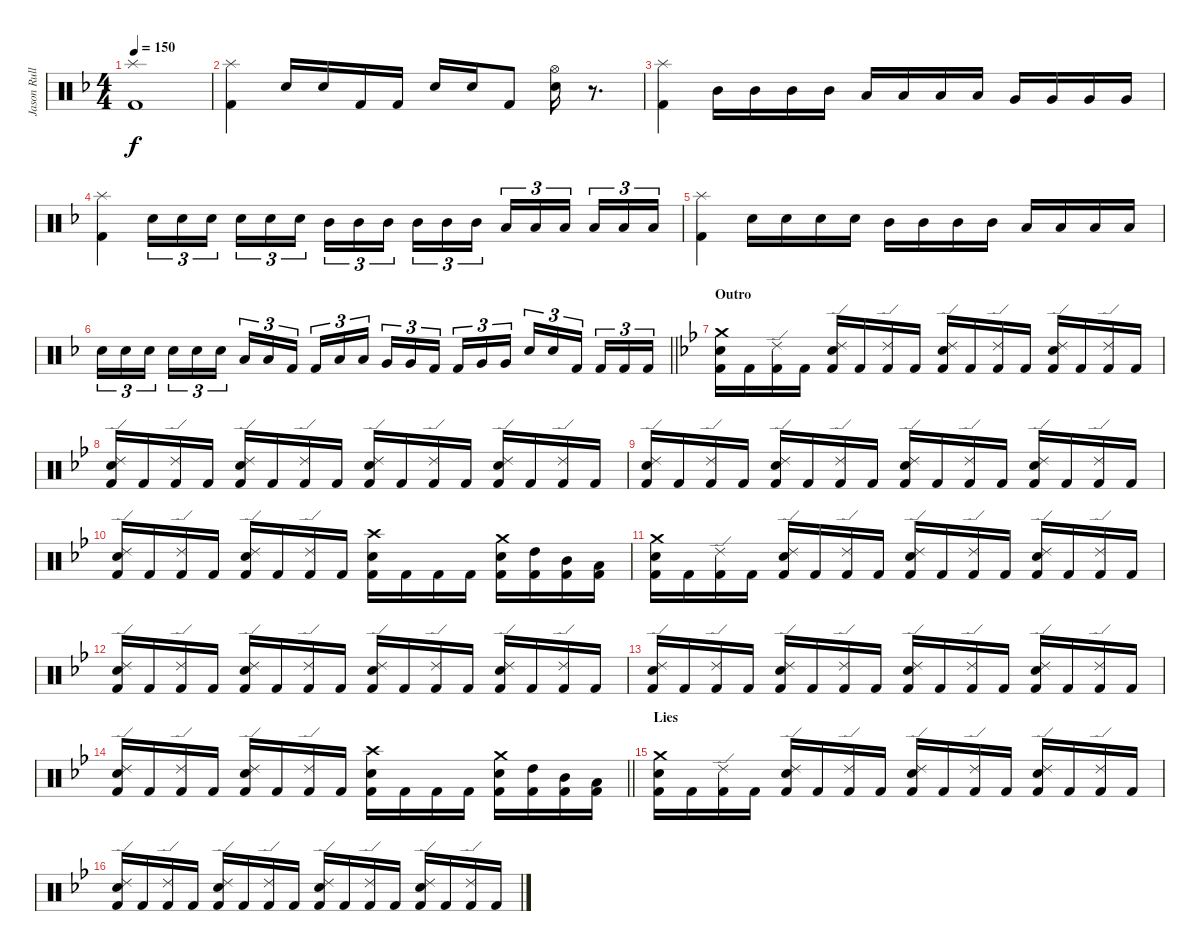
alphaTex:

\track ("Jason Rullo" "Jason Rull") {instrument percussion}
\staff {score}
\articulation defaults
\ts (4 4)
\tempo 150
\clef neutral
\ks dminor
("Splash (hit)" "Kick (hit) 2").1{dy f} |
("Splash (hit)" "Kick (hit) 2").4 "Electric Snare (hit)".16 "Electric Snare (hit)".16 "Kick (hit) 2".16 "Kick (hit) 2".16 "Electric Snare (hit)".16 "Electric Snare (hit)".16 "Kick (hit) 2".8 ("Hi-Hat (open)" "Electric Snare (hit)").16 r.8{d} |
("Splash (hit)" "Kick (hit) 2").4 "Mid Tom (hit)".16 "Mid Tom (hit)".16 "Mid Tom (hit)".16 "Mid Tom (hit)".16 "Low Tom (hit)".16 "Low Tom (hit)".16 "Low Tom (hit)".16 "Low Tom (hit)".16 "Very Low Tom (hit)".16 "Very Low Tom (hit)".16 "Very Low Tom (hit)".16 "Very Low Tom (hit)".16 |
("Splash (hit)" "Kick (hit) 2").4 "Electric Snare (hit)".16{tu (3 2)} "Electric Snare (hit)".16{tu (3 2)} "Electric Snare (hit)".16{tu (3 2) beam splitsecondary} "Electric Snare (hit)".16{tu (3 2)} "Electric Snare (hit)".16{tu (3 2)} "Electric Snare (hit)".16{tu (3 2)} "Mid Tom (hit)".16{tu (3 2)} "Mid Tom (hit)".16{tu (3 2)} "Mid Tom (hit)".16{tu (3 2) beam splitsecondary} "Mid Tom (hit)".16{tu (3 2)} "Mid Tom (hit)".16{tu (3 2)} "Mid Tom (hit)".16{tu (3 2)} "Low Tom (hit)".16{tu (3 2)} "Low Tom (hit)".16{tu (3 2)} "Low Tom (hit)".16{tu (3 2) beam splitsecondary} "Low Tom (hit)".16{tu (3 2)} "Low Tom (hit)".16{tu (3 2)} "Low Tom (hit)".16{tu (3 2)} |
("Splash (hit)" "Kick (hit) 2").4 "Electric Snare (hit)".16 "Electric Snare (hit)".16 "Electric Snare (hit)".16 "Electric Snare (hit)".16 "Mid Tom (hit)".16 "Mid Tom (hit)".16 "Mid Tom (hit)".16 "Mid Tom (hit)".16 "Low Tom (hit)".16 "Low Tom (hit)".16 "Low Tom (hit)".16 "Low Tom (hit)".16 |
\barLineRight lightlight "Electric Snare (hit)".16{tu (3 2)} "Electric Snare (hit)".16{tu (3 2)} "Electric Snare (hit)".16{tu (3 2) beam splitsecondary} "Electric Snare (hit)".16{tu (3 2)} "Electric Snare (hit)".16{tu (3 2)} "Electric Snare (hit)".16{tu (3 2)} "Low Tom (hit)".16{tu (3 2)} "Low Tom (hit)".16{tu (3 2)} "Kick (hit) 2".16{tu (3 2) beam splitsecondary} "Kick (hit) 2".16{tu (3 2)} "Low Tom (hit)".16{tu (3 2)} "Low Tom (hit)".16{tu (3 2)} "Very Low Tom (hit)".16{tu (3 2)} "Very Low Tom (hit)".16{tu (3 2)} "Kick (hit) 2".16{tu (3 2) beam splitsecondary} "Kick (hit) 2".16{tu (3 2)} "Very Low Tom (hit)".16{tu (3 2)} "Very Low Tom (hit)".16{tu (3 2)} "Electric Snare (hit)".16{tu (3 2)} "Electric Snare (hit)".16{tu (3 2)} "Kick (hit) 2".16{tu (3 2) beam splitsecondary} "Kick (hit) 2".16{tu (3 2)} "Kick (hit) 2".16{tu (3 2)} "Kick (hit) 2".16{tu (3 2)}
|
\section ("" "Outro")
\ks gminor
("Crash medium (hit)" "Electric Snare (hit)" "Kick (hit) 2").16 "Kick (hit) 2".16 ("Ride (edge) 2" "Kick (hit) 2").16 "Kick (hit) 2".16 ("Ride (edge) 2" "Electric Snare (hit)" "Kick (hit) 2").16 "Kick (hit) 2".16 ("Ride (edge) 2" "Kick (hit) 2").16 "Kick (hit) 2".16 ("Ride (edge) 2" "Electric Snare (hit)" "Kick (hit) 2").16 "Kick (hit) 2".16 ("Ride (edge) 2" "Kick (hit) 2").16 "Kick (hit) 2".16 ("Ride (edge) 2" "Electric Snare (hit)" "Kick (hit) 2").16 "Kick (hit) 2".16 ("Ride (edge) 2" "Kick (hit) 2").16 "Kick (hit) 2".16 |
("Ride (edge) 2" "Electric Snare (hit)" "Kick (hit) 2").16 "Kick (hit) 2".16 ("Ride (edge) 2" "Kick (hit) 2").16 "Kick (hit) 2".16 ("Ride (edge) 2" "Electric Snare (hit)" "Kick (hit) 2").16 "Kick (hit) 2".16 ("Ride (edge) 2" "Kick (hit) 2").16 "Kick (hit) 2".16 ("Ride (edge) 2" "Electric Snare (hit)" "Kick (hit) 2").16 "Kick (hit) 2".16 ("Ride (edge) 2" "Kick (hit) 2").16 "Kick (hit) 2".16 ("Ride (edge) 2" "Electric Snare (hit)" "Kick (hit) 2").16 "Kick (hit) 2".16 ("Ride (edge) 2" "Kick (hit) 2").16 "Kick (hit) 2".16 |
("Ride (edge) 2" "Electric Snare (hit)" "Kick (hit) 2").16 "Kick (hit) 2".16 ("Ride (edge) 2" "Kick (hit) 2").16 "Kick (hit) 2".16 ("Ride (edge) 2" "Electric Snare (hit)" "Kick (hit) 2").16 "Kick (hit) 2".16 ("Ride (edge) 2" "Kick (hit) 2").16 "Kick (hit) 2".16 ("Ride (edge) 2" "Electric Snare (hit)" "Kick (hit) 2").16 "Kick (hit) 2".16 ("Ride (edge) 2" "Kick (hit) 2").16 "Kick (hit) 2".16 ("Ride (edge) 2" "Electric Snare (hit)" "Kick (hit) 2").16 "Kick (hit) 2".16 ("Ride (edge) 2" "Kick (hit) 2").16 "Kick (hit) 2".16 |
("Ride (edge) 2" "Electric Snare (hit)" "Kick (hit) 2").16 "Kick (hit) 2".16 ("Ride (edge) 2" "Kick (hit) 2").16 "Kick (hit) 2".16 ("Ride (edge) 2" "Electric Snare (hit)" "Kick (hit) 2").16 "Kick (hit) 2".16 ("Ride (edge) 2" "Kick (hit) 2").16 "Kick (hit) 2".16 ("Crash high (hit)" "Electric Snare (hit)" "Kick (hit) 2").16 "Kick (hit) 2".16 "Kick (hit) 2".16 "Kick (hit) 2".16 ("Crash medium (hit)" "Electric Snare (hit)" "Kick (hit) 2").16 ("High Tom (hit)" "Kick (hit) 2").16 ("Mid Tom (hit)" "Kick (hit) 2").16 ("Low Tom (hit)" "Kick (hit) 2").16 |
("Crash medium (hit)" "Electric Snare (hit)" "Kick (hit) 2").16 "Kick (hit) 2".16 ("Ride (edge) 2" "Kick (hit) 2").16 "Kick (hit) 2".16 ("Ride (edge) 2" "Electric Snare (hit)" "Kick (hit) 2").16 "Kick (hit) 2".16 ("Ride (edge) 2" "Kick (hit) 2").16 "Kick (hit) 2".16 ("Ride (edge) 2" "Electric Snare (hit)" "Kick (hit) 2").16 "Kick (hit) 2".16 ("Ride (edge) 2" "Kick (hit) 2").16 "Kick (hit) 2".16 ("Ride (edge) 2" "Electric Snare (hit)" "Kick (hit) 2").16 "Kick (hit) 2".16 ("Ride (edge) 2" "Kick (hit) 2").16 "Kick (hit) 2".16 |
("Ride (edge) 2" "Electric Snare (hit)" "Kick (hit) 2").16 "Kick (hit) 2".16 ("Ride (edge) 2" "Kick (hit) 2").16 "Kick (hit) 2".16 ("Ride (edge) 2" "Electric Snare (hit)" "Kick (hit) 2").16 "Kick (hit) 2".16 ("Ride (edge) 2" "Kick (hit) 2").16 "Kick (hit) 2".16 ("Ride (edge) 2" "Electric Snare (hit)" "Kick (hit) 2").16 "Kick (hit) 2".16 ("Ride (edge) 2" "Kick (hit) 2").16 "Kick (hit) 2".16 ("Ride (edge) 2" "Electric Snare (hit)" "Kick (hit) 2").16 "Kick (hit) 2".16 ("Ride (edge) 2" "Kick (hit) 2").16 "Kick (hit) 2".16 |
("Ride (edge) 2" "Electric Snare (hit)" "Kick (hit) 2").16 "Kick (hit) 2".16 ("Ride (edge) 2" "Kick (hit) 2").16 "Kick (hit) 2".16 ("Ride (edge) 2" "Electric Snare (hit)" "Kick (hit) 2").16 "Kick (hit) 2".16 ("Ride (edge) 2" "Kick (hit) 2").16 "Kick (hit) 2".16 ("Ride (edge) 2" "Electric Snare (hit)" "Kick (hit) 2").16 "Kick (hit) 2".16 ("Ride (edge) 2" "Kick (hit) 2").16 "Kick (hit) 2".16 ("Ride (edge) 2" "Electric Snare (hit)" "Kick (hit) 2").16 "Kick (hit) 2".16 ("Ride (edge) 2" "Kick (hit) 2").16 "Kick (hit) 2".16 |
\barLineRight lightlight
("Ride (edge) 2" "Electric Snare (hit)" "Kick (hit) 2").16 "Kick (hit) 2".16 ("Ride (edge) 2" "Kick (hit) 2").16 "Kick (hit) 2".16 ("Ride (edge) 2" "Electric Snare (hit)" "Kick (hit) 2").16 "Kick (hit) 2".16 ("Ride (edge) 2" "Kick (hit) 2").16 "Kick (hit) 2".16 ("Crash high (hit)" "Electric Snare (hit)" "Kick (hit) 2").16 "Kick (hit) 2".16 "Kick (hit) 2".16 "Kick (hit) 2".16 ("Crash medium (hit)" "Electric Snare (hit)" "Kick (hit) 2").16 ("High Tom (hit)" "Kick (hit) 2").16 ("Mid Tom (hit)" "Kick (hit) 2").16 ("Low Tom (hit)" "Kick (hit) 2").16 |
\section ("" "Lies")
("Crash medium (hit)" "Electric Snare (hit)" "Kick (hit) 2").16 "Kick (hit) 2".16 ("Ride (edge) 2" "Kick (hit) 2").16 "Kick (hit) 2".16 ("Ride (edge) 2" "Electric Snare (hit)" "Kick (hit) 2").16 "Kick (hit) 2".16 ("Ride (edge) 2" "Kick (hit) 2").16 "Kick (hit) 2".16 ("Ride (edge) 2" "Electric Snare (hit)" "Kick (hit) 2").16 "Kick (hit) 2".16 ("Ride (edge) 2" "Kick (hit) 2").16 "Kick (hit) 2".16 ("Ride (edge) 2" "Electric Snare (hit)" "Kick (hit) 2").16 "Kick (hit) 2".16 ("Ride (edge) 2" "Kick (hit) 2").16 "Kick (hit) 2".16 |
("Ride (edge) 2" "Electric Snare (hit)" "Kick (hit) 2").16 "Kick (hit) 2".16 ("Ride (edge) 2" "Kick (hit) 2").16 "Kick (hit) 2".16 ("Ride (edge) 2" "Electric Snare (hit)" "Kick (hit) 2").16 "Kick (hit) 2".16 ("Ride (edge) 2" "Kick (hit) 2").16 "Kick (hit) 2".16 ("Ride (edge) 2" "Electric Snare (hit)" "Kick (hit) 2").16 "Kick (hit) 2".16 ("Ride (edge) 2" "Kick (hit) 2").16 "Kick (hit) 2".16 ("Ride (edge) 2" "Electric Snare (hit)" "Kick (hit) 2").16 "Kick (hit) 2".16 ("Ride (edge) 2" "Kick (hit) 2").16 "Kick (hit) 2".16
